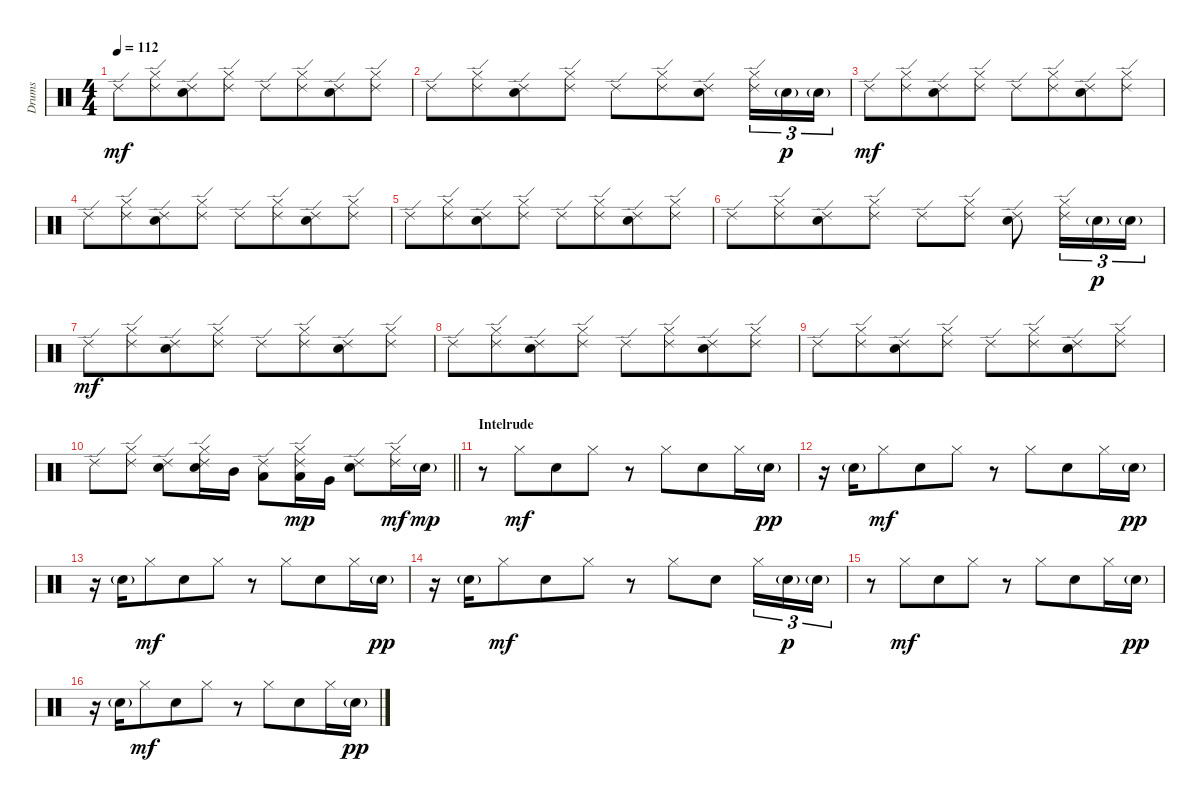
\track ("Drums" "Drums") {instrument percussion}
\staff {score}
\articulation defaults
\ts (4 4)
\tempo 112
\clef neutral
\ks c "Ride (edge) 2".8{dy mf}
("Hi-Hat (closed)" "Ride (edge) 2").8{beam merge} ("Ride (edge) 2" "Electric Snare (hit)").8 ("Hi-Hat (closed)" "Ride (edge) 2").8 "Ride (edge) 2".8 ("Hi-Hat (closed)" "Ride (edge) 2").8{beam merge} ("Ride (edge) 2" "Electric Snare (hit)").8 ("Hi-Hat (closed)" "Ride (edge) 2").8 |
"Ride (edge) 2".8 ("Hi-Hat (closed)" "Ride (edge) 2").8{beam merge} ("Ride (edge) 2" "Electric Snare (hit)").8 ("Hi-Hat (closed)" "Ride (edge) 2").8 "Ride (edge) 2".8 ("Hi-Hat (closed)" "Ride (edge) 2").8{beam merge} ("Ride (edge) 2" "Electric Snare (hit)").8 ("Hi-Hat (closed)" "Ride (edge) 2").16{tu (3 2)} "Electric Snare (hit)"{g}.16{tu (3 2) dy p} "Electric Snare (hit)"{g}.16{tu (3 2)} |
"Ride (edge) 2".8{dy mf} ("Hi-Hat (closed)" "Ride (edge) 2").8{beam merge} ("Ride (edge) 2" "Electric Snare (hit)").8 ("Hi-Hat (closed)" "Ride (edge) 2").8 "Ride (edge) 2".8 ("Hi-Hat (closed)" "Ride (edge) 2").8{beam merge} ("Ride (edge) 2" "Electric Snare (hit)").8 ("Hi-Hat (closed)" "Ride (edge) 2").8 |
"Ride (edge) 2".8 ("Hi-Hat (closed)" "Ride (edge) 2").8{beam merge} ("Ride (edge) 2" "Electric Snare (hit)").8 ("Hi-Hat (closed)" "Ride (edge) 2").8 "Ride (edge) 2".8 ("Hi-Hat (closed)" "Ride (edge) 2").8{beam merge} ("Ride (edge) 2" "Electric Snare (hit)").8 ("Hi-Hat (closed)" "Ride (edge) 2").8 |
"Ride (edge) 2".8 ("Hi-Hat (closed)" "Ride (edge) 2").8{beam merge} ("Ride (edge) 2" "Electric Snare (hit)").8 ("Hi-Hat (closed)" "Ride (edge) 2").8 "Ride (edge) 2".8 ("Hi-Hat (closed)" "Ride (edge) 2").8{beam merge} ("Ride (edge) 2" "Electric Snare (hit)").8 ("Hi-Hat (closed)" "Ride (edge) 2").8 |
"Ride (edge) 2".8 ("Hi-Hat (closed)" "Ride (edge) 2").8{beam merge} ("Ride (edge) 2" "Electric Snare (hit)").8 ("Hi-Hat (closed)" "Ride (edge) 2").8 "Ride (edge) 2".8 ("Hi-Hat (closed)" "Ride (edge) 2").8{beam split} ("Ride (edge) 2" "Electric Snare (hit)").8 ("Hi-Hat (closed)" "Ride (edge) 2").16{tu (3 2)} "Electric Snare (hit)"{g}.16{tu (3 2) dy p} "Electric Snare (hit)"{g}.16{tu (3 2)} |
"Ride (edge) 2".8{dy mf} ("Hi-Hat (closed)" "Ride (edge) 2").8{beam merge} ("Ride (edge) 2" "Electric Snare (hit)").8 ("Hi-Hat (closed)" "Ride (edge) 2").8 "Ride (edge) 2".8 ("Hi-Hat (closed)" "Ride (edge) 2").8{beam merge} ("Ride (edge) 2" "Electric Snare (hit)").8 ("Hi-Hat (closed)" "Ride (edge) 2").8 |
"Ride (edge) 2".8 ("Hi-Hat (closed)" "Ride (edge) 2").8{beam merge} ("Ride (edge) 2" "Electric Snare (hit)").8 ("Hi-Hat (closed)" "Ride (edge) 2").8 "Ride (edge) 2".8 ("Hi-Hat (closed)" "Ride (edge) 2").8{beam merge} ("Ride (edge) 2" "Electric Snare (hit)").8 ("Hi-Hat (closed)" "Ride (edge) 2").8 |
"Ride (edge) 2".8 ("Hi-Hat (closed)" "Ride (edge) 2").8{beam merge} ("Ride (edge) 2" "Electric Snare (hit)").8 ("Hi-Hat (closed)" "Ride (edge) 2").8 "Ride (edge) 2".8 ("Hi-Hat (closed)" "Ride (edge) 2").8{beam merge} ("Ride (edge) 2" "Electric Snare (hit)").8 ("Hi-Hat (closed)" "Ride (edge) 2").8 |
\barLineRight lightlight "Ride (edge) 2".8
("Hi-Hat (closed)" "Ride (edge) 2").8{beam split} ("Ride (edge) 2" "Electric Snare (hit)").8 ("Hi-Hat (closed)" "Ride (edge) 2" "Electric Snare (hit)").16 "Mid Tom (hit)".16 ("Ride (edge) 2" "Low Tom (hit)").8 ("Hi-Hat (closed)" "Ride (edge) 2" "Low Tom (hit)").16{dy mp} "Very Low Tom (hit)".16{beam split} ("Ride (edge) 2" "Electric Snare (hit)").8 ("Hi-Hat (closed)" "Ride (edge) 2").16{dy mf} "Electric Snare (hit)"{g}.16{dy mp} |
\section ("" "Intelrude")
r.8 "Hi-Hat (closed)".8{dy mf beam merge} "Electric Snare (hit)".8 "Hi-Hat (closed)".8 r.8 "Hi-Hat (closed)".8{beam merge} "Electric Snare (hit)".8 "Hi-Hat (closed)".16 "Electric Snare (hit)"{g}.16{dy pp} |
r.16 "Electric Snare (hit)"{g}.16 "Hi-Hat (closed)".8{dy mf beam merge} "Electric Snare (hit)".8 "Hi-Hat (closed)".8 r.8 "Hi-Hat (closed)".8{beam merge} "Electric Snare (hit)".8 "Hi-Hat (closed)".16 "Electric Snare (hit)"{g}.16{dy pp} |
r.16 "Electric Snare (hit)"{g}.16 "Hi-Hat (closed)".8{dy mf beam merge} "Electric Snare (hit)".8 "Hi-Hat (closed)".8 r.8 "Hi-Hat (closed)".8{beam merge} "Electric Snare (hit)".8 "Hi-Hat (closed)".16 "Electric Snare (hit)"{g}.16{dy pp} |
r.16 "Electric Snare (hit)"{g}.16 "Hi-Hat (closed)".8{dy mf beam merge} "Electric Snare (hit)".8 "Hi-Hat (closed)".8 r.8 "Hi-Hat (closed)".8{beam merge} "Electric Snare (hit)".8 "Hi-Hat (closed)".16{tu (3 2)} "Electric Snare (hit)"{g}.16{tu (3 2) dy p} "Electric Snare (hit)"{g}.16{tu (3 2)} |
r.8 "Hi-Hat (closed)".8{dy mf beam merge} "Electric Snare (hit)".8 "Hi-Hat (closed)".8 r.8 "Hi-Hat (closed)".8{beam merge} "Electric Snare (hit)".8 "Hi-Hat (closed)".16 "Electric Snare (hit)"{g}.16{dy pp} |
r.16 "Electric Snare (hit)"{g}.16 "Hi-Hat (closed)".8{dy mf beam merge} "Electric Snare (hit)".8 "Hi-Hat (closed)".8 r.8 "Hi-Hat (closed)".8{beam merge} "Electric Snare (hit)".8 "Hi-Hat (closed)".16 "Electric Snare (hit)"{g}.16{dy pp}
